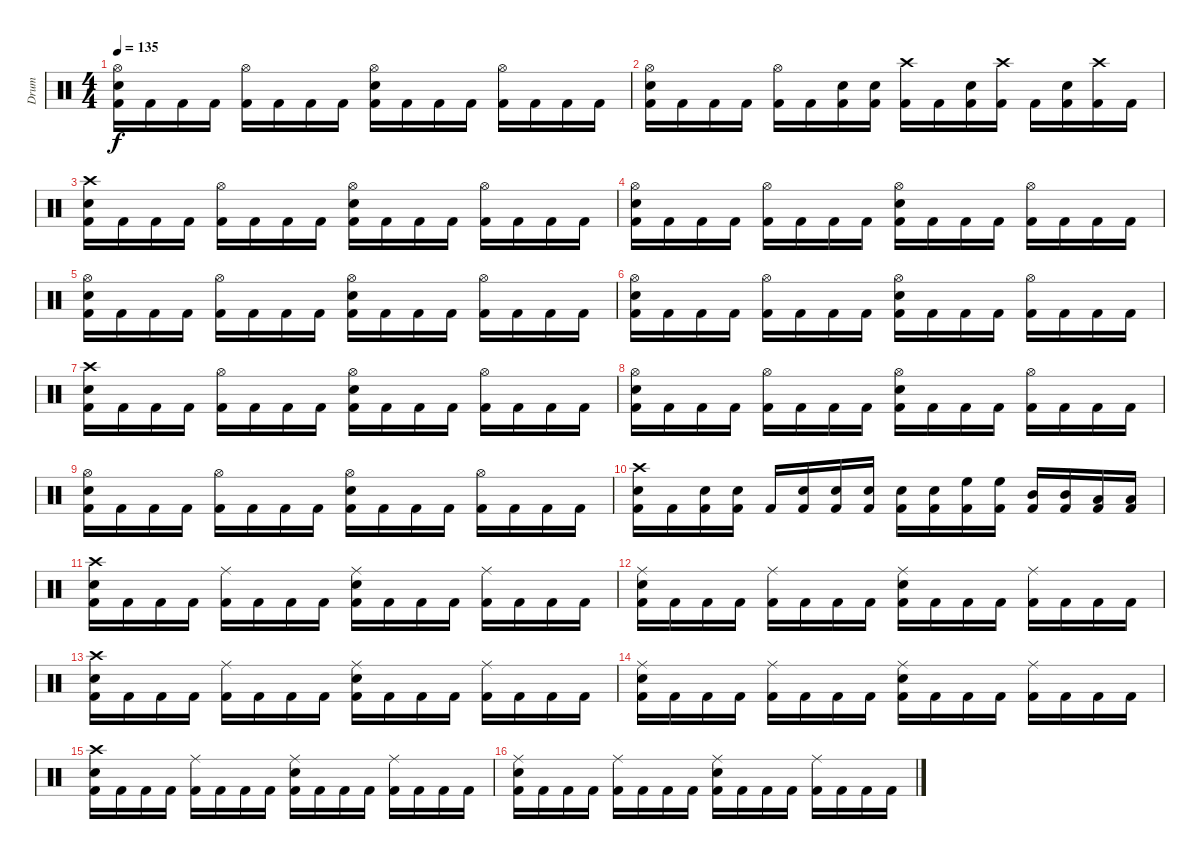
\track ("Drum" "Drum") {instrument percussion}
\staff {score}
\articulation defaults
\ts (4 4)
\tempo 135
\clef neutral
\ks c
("Hi-Hat (open)" "Snare (hit) 2" "Kick (hit) 2").16{dy f} "Kick (hit) 2".16 "Kick (hit) 2".16 "Kick (hit) 2".16 ("Hi-Hat (open)" "Kick (hit) 2").16 "Kick (hit) 2".16 "Kick (hit) 2".16 "Kick (hit) 2".16 ("Hi-Hat (open)" "Snare (hit) 2" "Kick (hit) 2").16 "Kick (hit) 2".16 "Kick (hit) 2".16 "Kick (hit) 2".16 ("Hi-Hat (open)" "Kick (hit) 2").16 "Kick (hit) 2".16 "Kick (hit) 2".16 "Kick (hit) 2".16 |
("Hi-Hat (open)" "Snare (hit) 2" "Kick (hit) 2").16 "Kick (hit) 2".16 "Kick (hit) 2".16 "Kick (hit) 2".16 ("Hi-Hat (open)" "Kick (hit) 2").16 "Kick (hit) 2".16 ("Snare (hit) 2" "Kick (hit) 2").16 ("Snare (hit) 2" "Kick (hit) 2").16 ("Crash high (hit)" "Kick (hit) 2").16 "Kick (hit) 2".16 ("Snare (hit) 2" "Kick (hit) 2").16 ("Crash high (hit)" "Kick (hit) 2").16 "Kick (hit) 2".16 ("Snare (hit) 2" "Kick (hit) 2").16 ("Crash high (hit)" "Kick (hit) 2").16 "Kick (hit) 2".16 |
("Crash high (hit)" "Snare (hit) 2" "Kick (hit) 2").16 "Kick (hit) 2".16 "Kick (hit) 2".16 "Kick (hit) 2".16 ("Hi-Hat (open)" "Kick (hit) 2").16 "Kick (hit) 2".16 "Kick (hit) 2".16 "Kick (hit) 2".16 ("Hi-Hat (open)" "Snare (hit) 2" "Kick (hit) 2").16 "Kick (hit) 2".16 "Kick (hit) 2".16 "Kick (hit) 2".16 ("Hi-Hat (open)" "Kick (hit) 2").16 "Kick (hit) 2".16 "Kick (hit) 2".16 "Kick (hit) 2".16 |
("Hi-Hat (open)" "Snare (hit) 2" "Kick (hit) 2").16 "Kick (hit) 2".16 "Kick (hit) 2".16 "Kick (hit) 2".16 ("Hi-Hat (open)" "Kick (hit) 2").16 "Kick (hit) 2".16 "Kick (hit) 2".16 "Kick (hit) 2".16 ("Hi-Hat (open)" "Snare (hit) 2" "Kick (hit) 2").16 "Kick (hit) 2".16 "Kick (hit) 2".16 "Kick (hit) 2".16 ("Hi-Hat (open)" "Kick (hit) 2").16 "Kick (hit) 2".16 "Kick (hit) 2".16 "Kick (hit) 2".16 |
("Hi-Hat (open)" "Snare (hit) 2" "Kick (hit) 2").16 "Kick (hit) 2".16 "Kick (hit) 2".16 "Kick (hit) 2".16 ("Hi-Hat (open)" "Kick (hit) 2").16 "Kick (hit) 2".16 "Kick (hit) 2".16 "Kick (hit) 2".16 ("Hi-Hat (open)" "Snare (hit) 2" "Kick (hit) 2").16 "Kick (hit) 2".16 "Kick (hit) 2".16 "Kick (hit) 2".16 ("Hi-Hat (open)" "Kick (hit) 2").16 "Kick (hit) 2".16 "Kick (hit) 2".16 "Kick (hit) 2".16 |
("Hi-Hat (open)" "Snare (hit) 2" "Kick (hit) 2").16 "Kick (hit) 2".16 "Kick (hit) 2".16 "Kick (hit) 2".16 ("Hi-Hat (open)" "Kick (hit) 2").16 "Kick (hit) 2".16 "Kick (hit) 2".16 "Kick (hit) 2".16 ("Hi-Hat (open)" "Snare (hit) 2" "Kick (hit) 2").16 "Kick (hit) 2".16 "Kick (hit) 2".16 "Kick (hit) 2".16 ("Hi-Hat (open)" "Kick (hit) 2").16 "Kick (hit) 2".16 "Kick (hit) 2".16 "Kick (hit) 2".16 |
("Crash high (hit)" "Snare (hit) 2" "Kick (hit) 2").16 "Kick (hit) 2".16 "Kick (hit) 2".16 "Kick (hit) 2".16 ("Hi-Hat (open)" "Kick (hit) 2").16 "Kick (hit) 2".16 "Kick (hit) 2".16 "Kick (hit) 2".16 ("Hi-Hat (open)" "Snare (hit) 2" "Kick (hit) 2").16 "Kick (hit) 2".16 "Kick (hit) 2".16 "Kick (hit) 2".16 ("Hi-Hat (open)" "Kick (hit) 2").16 "Kick (hit) 2".16 "Kick (hit) 2".16 "Kick (hit) 2".16 |
("Hi-Hat (open)" "Snare (hit) 2" "Kick (hit) 2").16 "Kick (hit) 2".16 "Kick (hit) 2".16 "Kick (hit) 2".16 ("Hi-Hat (open)" "Kick (hit) 2").16 "Kick (hit) 2".16 "Kick (hit) 2".16 "Kick (hit) 2".16 ("Hi-Hat (open)" "Snare (hit) 2" "Kick (hit) 2").16 "Kick (hit) 2".16 "Kick (hit) 2".16 "Kick (hit) 2".16 ("Hi-Hat (open)" "Kick (hit) 2").16 "Kick (hit) 2".16 "Kick (hit) 2".16 "Kick (hit) 2".16 |
("Hi-Hat (open)" "Snare (hit) 2" "Kick (hit) 2").16 "Kick (hit) 2".16 "Kick (hit) 2".16 "Kick (hit) 2".16 ("Hi-Hat (open)" "Kick (hit) 2").16 "Kick (hit) 2".16 "Kick (hit) 2".16 "Kick (hit) 2".16 ("Hi-Hat (open)" "Snare (hit) 2" "Kick (hit) 2").16 "Kick (hit) 2".16 "Kick (hit) 2".16 "Kick (hit) 2".16 ("Hi-Hat (open)" "Kick (hit) 2").16 "Kick (hit) 2".16 "Kick (hit) 2".16 "Kick (hit) 2".16 |
("Crash high (hit)" "Snare (hit) 2" "Kick (hit) 2").16 "Kick (hit) 2".16 ("Snare (hit) 2" "Kick (hit) 2").16 ("Snare (hit) 2" "Kick (hit) 2").16 "Kick (hit) 2".16 ("Snare (hit) 2" "Kick (hit) 2").16 ("Snare (hit) 2" "Kick (hit) 2").16 ("Snare (hit) 2" "Kick (hit) 2").16 ("Snare (hit) 2" "Kick (hit) 2").16 ("Snare (hit) 2" "Kick (hit) 2").16 ("High Floor Tom (hit)" "Kick (hit) 2").16 ("High Floor Tom (hit)" "Kick (hit) 2").16 ("Mid Tom (hit)" "Kick (hit) 2").16 ("Mid Tom (hit)" "Kick (hit) 2").16 ("Low Tom (hit)" "Kick (hit) 2").16 ("Low Tom (hit)" "Kick (hit) 2").16 |
("Crash high (hit)" "Snare (hit) 2" "Kick (hit) 2").16 "Kick (hit) 2".16 "Kick (hit) 2".16 "Kick (hit) 2".16 ("Ride (middle)" "Kick (hit) 2").16 "Kick (hit) 2".16 "Kick (hit) 2".16 "Kick (hit) 2".16 ("Ride (middle)" "Snare (hit) 2" "Kick (hit) 2").16 "Kick (hit) 2".16 "Kick (hit) 2".16 "Kick (hit) 2".16 ("Ride (middle)" "Kick (hit) 2").16 "Kick (hit) 2".16 "Kick (hit) 2".16 "Kick (hit) 2".16 |
("Ride (middle)" "Snare (hit) 2" "Kick (hit) 2").16 "Kick (hit) 2".16 "Kick (hit) 2".16 "Kick (hit) 2".16 ("Ride (middle)" "Kick (hit) 2").16 "Kick (hit) 2".16 "Kick (hit) 2".16 "Kick (hit) 2".16 ("Ride (middle)" "Snare (hit) 2" "Kick (hit) 2").16 "Kick (hit) 2".16 "Kick (hit) 2".16 "Kick (hit) 2".16 ("Ride (middle)" "Kick (hit) 2").16 "Kick (hit) 2".16 "Kick (hit) 2".16 "Kick (hit) 2".16 |
("Crash high (hit)" "Snare (hit) 2" "Kick (hit) 2").16 "Kick (hit) 2".16 "Kick (hit) 2".16 "Kick (hit) 2".16 ("Ride (middle)" "Kick (hit) 2").16 "Kick (hit) 2".16 "Kick (hit) 2".16 "Kick (hit) 2".16 ("Ride (middle)" "Snare (hit) 2" "Kick (hit) 2").16 "Kick (hit) 2".16 "Kick (hit) 2".16 "Kick (hit) 2".16 ("Ride (middle)" "Kick (hit) 2").16 "Kick (hit) 2".16 "Kick (hit) 2".16 "Kick (hit) 2".16 |
("Ride (middle)" "Snare (hit) 2" "Kick (hit) 2").16 "Kick (hit) 2".16 "Kick (hit) 2".16 "Kick (hit) 2".16 ("Ride (middle)" "Kick (hit) 2").16 "Kick (hit) 2".16 "Kick (hit) 2".16 "Kick (hit) 2".16 ("Ride (middle)" "Snare (hit) 2" "Kick (hit) 2").16 "Kick (hit) 2".16 "Kick (hit) 2".16 "Kick (hit) 2".16 ("Ride (middle)" "Kick (hit) 2").16 "Kick (hit) 2".16 "Kick (hit) 2".16 "Kick (hit) 2".16 |
("Crash high (hit)" "Snare (hit) 2" "Kick (hit) 2").16 "Kick (hit) 2".16 "Kick (hit) 2".16 "Kick (hit) 2".16 ("Ride (middle)" "Kick (hit) 2").16 "Kick (hit) 2".16 "Kick (hit) 2".16 "Kick (hit) 2".16 ("Ride (middle)" "Snare (hit) 2" "Kick (hit) 2").16 "Kick (hit) 2".16 "Kick (hit) 2".16 "Kick (hit) 2".16 ("Ride (middle)" "Kick (hit) 2").16 "Kick (hit) 2".16 "Kick (hit) 2".16 "Kick (hit) 2".16 |
("Ride (middle)" "Snare (hit) 2" "Kick (hit) 2").16 "Kick (hit) 2".16 "Kick (hit) 2".16 "Kick (hit) 2".16 ("Ride (middle)" "Kick (hit) 2").16 "Kick (hit) 2".16 "Kick (hit) 2".16 "Kick (hit) 2".16 ("Ride (middle)" "Snare (hit) 2" "Kick (hit) 2").16 "Kick (hit) 2".16 "Kick (hit) 2".16 "Kick (hit) 2".16 ("Ride (middle)" "Kick (hit) 2").16 "Kick (hit) 2".16 "Kick (hit) 2".16 "Kick (hit) 2".16
